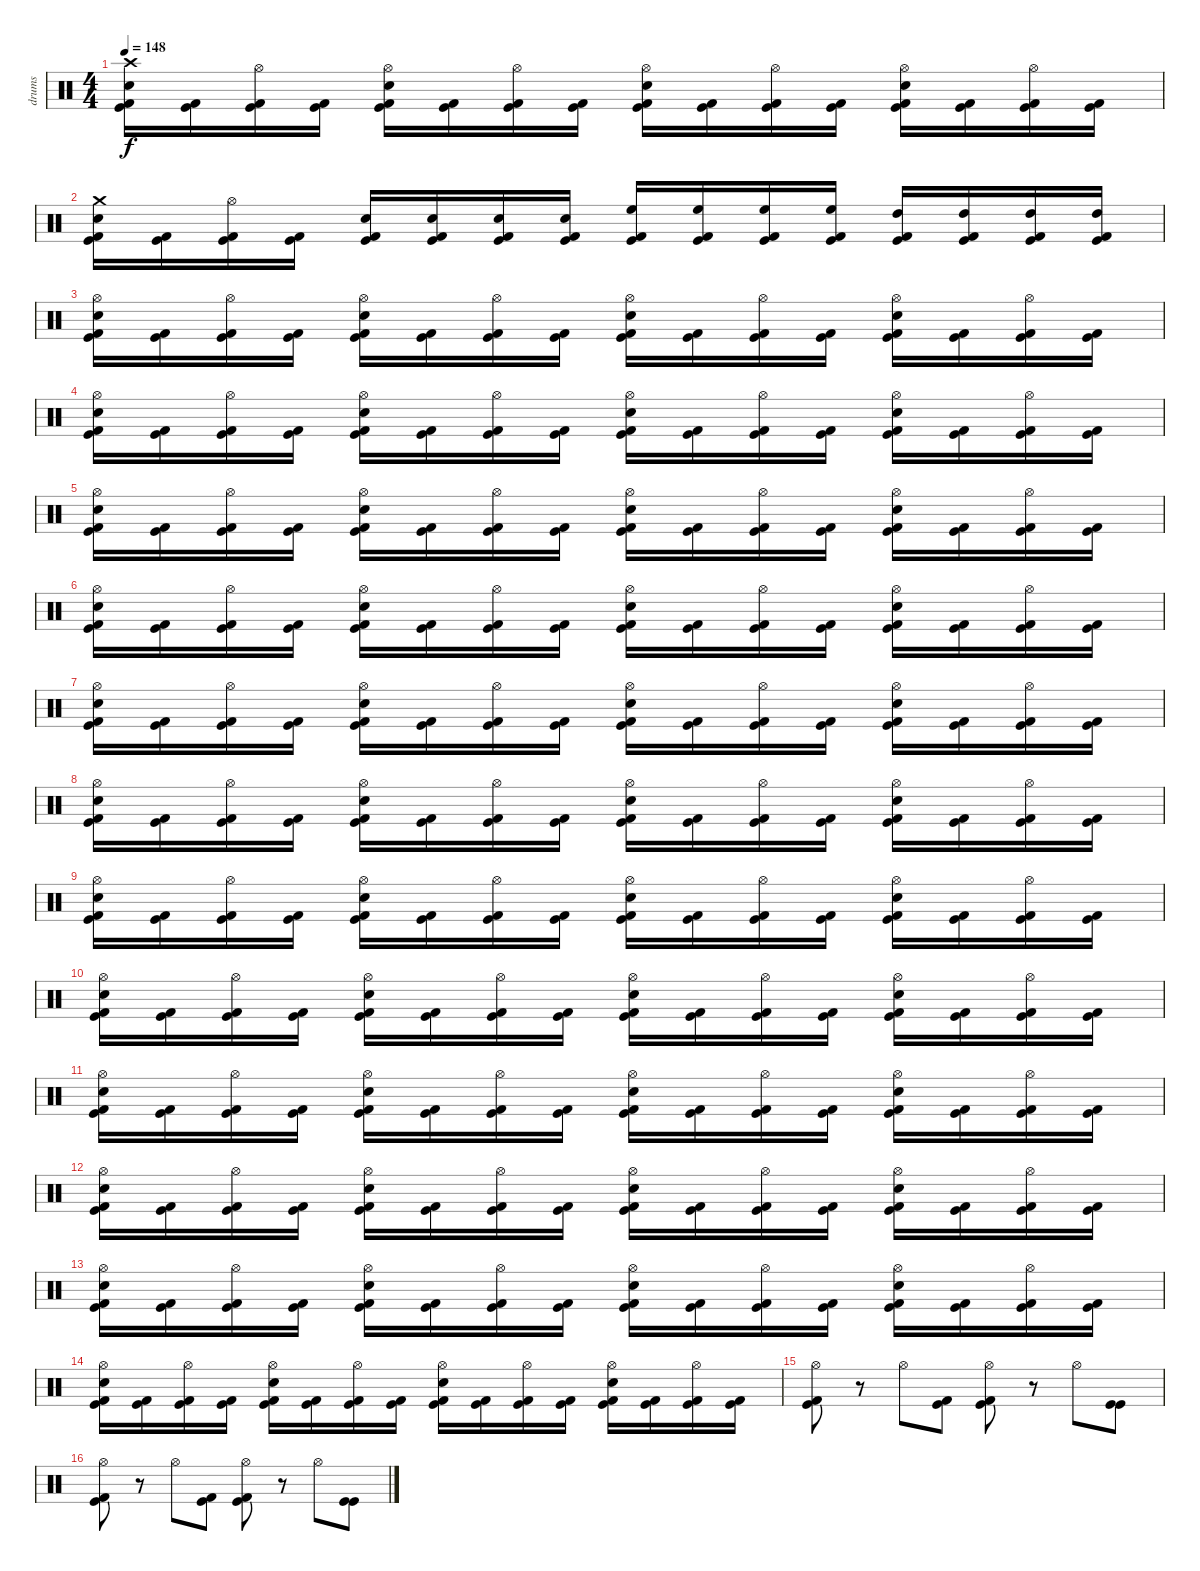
\track ("drums" "drums") {instrument percussion}
\staff {score}
\articulation defaults
\ts (4 4)
\tempo 148
\clef neutral
\ks c
("Kick (hit)" "Kick (hit) 2" "Snare (hit) 2" "Crash high (hit)").16{dy f} ("Kick (hit)" "Kick (hit) 2").16 ("Kick (hit)" "Kick (hit) 2" "Hi-Hat (open)").16 ("Kick (hit)" "Kick (hit) 2").16 ("Kick (hit)" "Kick (hit) 2" "Snare (hit) 2" "Hi-Hat (open)").16 ("Kick (hit)" "Kick (hit) 2").16 ("Kick (hit)" "Kick (hit) 2" "Hi-Hat (open)").16 ("Kick (hit)" "Kick (hit) 2").16 ("Kick (hit)" "Kick (hit) 2" "Snare (hit) 2" "Hi-Hat (open)").16 ("Kick (hit)" "Kick (hit) 2").16 ("Kick (hit)" "Kick (hit) 2" "Hi-Hat (open)").16 ("Kick (hit)" "Kick (hit) 2").16 ("Kick (hit)" "Kick (hit) 2" "Snare (hit) 2" "Hi-Hat (open)").16 ("Kick (hit)" "Kick (hit) 2").16 ("Kick (hit)" "Kick (hit) 2" "Hi-Hat (open)").16 ("Kick (hit)" "Kick (hit) 2").16 |
("Kick (hit)" "Kick (hit) 2" "Snare (hit) 2" "Crash medium (hit)").16 ("Kick (hit)" "Kick (hit) 2").16 ("Kick (hit)" "Kick (hit) 2" "Hi-Hat (open)").16 ("Kick (hit)" "Kick (hit) 2").16 ("Kick (hit)" "Kick (hit) 2" "Snare (hit) 2").16 ("Kick (hit)" "Kick (hit) 2" "Snare (hit) 2").16 ("Kick (hit)" "Kick (hit) 2" "Snare (hit) 2").16 ("Kick (hit)" "Kick (hit) 2" "Snare (hit) 2").16 ("Kick (hit)" "Kick (hit) 2" "High Floor Tom (hit)").16 ("Kick (hit)" "Kick (hit) 2" "High Floor Tom (hit)").16 ("Kick (hit)" "Kick (hit) 2" "High Floor Tom (hit)").16 ("Kick (hit)" "Kick (hit) 2" "High Floor Tom (hit)").16 ("Kick (hit)" "Kick (hit) 2" "High Tom (hit)").16 ("Kick (hit)" "Kick (hit) 2" "High Tom (hit)").16 ("Kick (hit)" "Kick (hit) 2" "High Tom (hit)").16 ("Kick (hit)" "Kick (hit) 2" "High Tom (hit)").16 |
("Kick (hit)" "Kick (hit) 2" "Snare (hit) 2" "Hi-Hat (open)").16 ("Kick (hit)" "Kick (hit) 2").16 ("Kick (hit)" "Kick (hit) 2" "Hi-Hat (open)").16 ("Kick (hit)" "Kick (hit) 2").16 ("Kick (hit)" "Kick (hit) 2" "Snare (hit) 2" "Hi-Hat (open)").16 ("Kick (hit)" "Kick (hit) 2").16 ("Kick (hit)" "Kick (hit) 2" "Hi-Hat (open)").16 ("Kick (hit)" "Kick (hit) 2").16 ("Kick (hit)" "Kick (hit) 2" "Snare (hit) 2" "Hi-Hat (open)").16 ("Kick (hit)" "Kick (hit) 2").16 ("Kick (hit)" "Kick (hit) 2" "Hi-Hat (open)").16 ("Kick (hit)" "Kick (hit) 2").16 ("Kick (hit)" "Kick (hit) 2" "Snare (hit) 2" "Hi-Hat (open)").16 ("Kick (hit)" "Kick (hit) 2").16 ("Kick (hit)" "Kick (hit) 2" "Hi-Hat (open)").16 ("Kick (hit)" "Kick (hit) 2").16 |
("Kick (hit)" "Kick (hit) 2" "Snare (hit) 2" "Hi-Hat (open)").16 ("Kick (hit)" "Kick (hit) 2").16 ("Kick (hit)" "Kick (hit) 2" "Hi-Hat (open)").16 ("Kick (hit)" "Kick (hit) 2").16 ("Kick (hit)" "Kick (hit) 2" "Snare (hit) 2" "Hi-Hat (open)").16 ("Kick (hit)" "Kick (hit) 2").16 ("Kick (hit)" "Kick (hit) 2" "Hi-Hat (open)").16 ("Kick (hit)" "Kick (hit) 2").16 ("Kick (hit)" "Kick (hit) 2" "Snare (hit) 2" "Hi-Hat (open)").16 ("Kick (hit)" "Kick (hit) 2").16 ("Kick (hit)" "Kick (hit) 2" "Hi-Hat (open)").16 ("Kick (hit)" "Kick (hit) 2").16 ("Kick (hit)" "Kick (hit) 2" "Snare (hit) 2" "Hi-Hat (open)").16 ("Kick (hit)" "Kick (hit) 2").16 ("Kick (hit)" "Kick (hit) 2" "Hi-Hat (open)").16 ("Kick (hit)" "Kick (hit) 2").16 |
("Kick (hit)" "Kick (hit) 2" "Snare (hit) 2" "Hi-Hat (open)").16 ("Kick (hit)" "Kick (hit) 2").16 ("Kick (hit)" "Kick (hit) 2" "Hi-Hat (open)").16 ("Kick (hit)" "Kick (hit) 2").16 ("Kick (hit)" "Kick (hit) 2" "Snare (hit) 2" "Hi-Hat (open)").16 ("Kick (hit)" "Kick (hit) 2").16 ("Kick (hit)" "Kick (hit) 2" "Hi-Hat (open)").16 ("Kick (hit)" "Kick (hit) 2").16 ("Kick (hit)" "Kick (hit) 2" "Snare (hit) 2" "Hi-Hat (open)").16 ("Kick (hit)" "Kick (hit) 2").16 ("Kick (hit)" "Kick (hit) 2" "Hi-Hat (open)").16 ("Kick (hit)" "Kick (hit) 2").16 ("Kick (hit)" "Kick (hit) 2" "Snare (hit) 2" "Hi-Hat (open)").16 ("Kick (hit)" "Kick (hit) 2").16 ("Kick (hit)" "Kick (hit) 2" "Hi-Hat (open)").16 ("Kick (hit)" "Kick (hit) 2").16 |
("Kick (hit)" "Kick (hit) 2" "Snare (hit) 2" "Hi-Hat (open)").16 ("Kick (hit)" "Kick (hit) 2").16 ("Kick (hit)" "Kick (hit) 2" "Hi-Hat (open)").16 ("Kick (hit)" "Kick (hit) 2").16 ("Kick (hit)" "Kick (hit) 2" "Snare (hit) 2" "Hi-Hat (open)").16 ("Kick (hit)" "Kick (hit) 2").16 ("Kick (hit)" "Kick (hit) 2" "Hi-Hat (open)").16 ("Kick (hit)" "Kick (hit) 2").16 ("Kick (hit)" "Kick (hit) 2" "Snare (hit) 2" "Hi-Hat (open)").16 ("Kick (hit)" "Kick (hit) 2").16 ("Kick (hit)" "Kick (hit) 2" "Hi-Hat (open)").16 ("Kick (hit)" "Kick (hit) 2").16 ("Kick (hit)" "Kick (hit) 2" "Snare (hit) 2" "Hi-Hat (open)").16 ("Kick (hit)" "Kick (hit) 2").16 ("Kick (hit)" "Kick (hit) 2" "Hi-Hat (open)").16 ("Kick (hit)" "Kick (hit) 2").16 |
("Kick (hit)" "Kick (hit) 2" "Snare (hit) 2" "Hi-Hat (open)").16 ("Kick (hit)" "Kick (hit) 2").16 ("Kick (hit)" "Kick (hit) 2" "Hi-Hat (open)").16 ("Kick (hit)" "Kick (hit) 2").16 ("Kick (hit)" "Kick (hit) 2" "Snare (hit) 2" "Hi-Hat (open)").16 ("Kick (hit)" "Kick (hit) 2").16 ("Kick (hit)" "Kick (hit) 2" "Hi-Hat (open)").16 ("Kick (hit)" "Kick (hit) 2").16 ("Kick (hit)" "Kick (hit) 2" "Snare (hit) 2" "Hi-Hat (open)").16 ("Kick (hit)" "Kick (hit) 2").16 ("Kick (hit)" "Kick (hit) 2" "Hi-Hat (open)").16 ("Kick (hit)" "Kick (hit) 2").16 ("Kick (hit)" "Kick (hit) 2" "Snare (hit) 2" "Hi-Hat (open)").16 ("Kick (hit)" "Kick (hit) 2").16 ("Kick (hit)" "Kick (hit) 2" "Hi-Hat (open)").16 ("Kick (hit)" "Kick (hit) 2").16 |
("Kick (hit)" "Kick (hit) 2" "Snare (hit) 2" "Hi-Hat (open)").16 ("Kick (hit)" "Kick (hit) 2").16 ("Kick (hit)" "Kick (hit) 2" "Hi-Hat (open)").16 ("Kick (hit)" "Kick (hit) 2").16 ("Kick (hit)" "Kick (hit) 2" "Snare (hit) 2" "Hi-Hat (open)").16 ("Kick (hit)" "Kick (hit) 2").16 ("Kick (hit)" "Kick (hit) 2" "Hi-Hat (open)").16 ("Kick (hit)" "Kick (hit) 2").16 ("Kick (hit)" "Kick (hit) 2" "Snare (hit) 2" "Hi-Hat (open)").16 ("Kick (hit)" "Kick (hit) 2").16 ("Kick (hit)" "Kick (hit) 2" "Hi-Hat (open)").16 ("Kick (hit)" "Kick (hit) 2").16 ("Kick (hit)" "Kick (hit) 2" "Snare (hit) 2" "Hi-Hat (open)").16 ("Kick (hit)" "Kick (hit) 2").16 ("Kick (hit)" "Kick (hit) 2" "Hi-Hat (open)").16 ("Kick (hit)" "Kick (hit) 2").16 |
("Kick (hit)" "Kick (hit) 2" "Snare (hit) 2" "Hi-Hat (open)").16 ("Kick (hit)" "Kick (hit) 2").16 ("Kick (hit)" "Kick (hit) 2" "Hi-Hat (open)").16 ("Kick (hit)" "Kick (hit) 2").16 ("Kick (hit)" "Kick (hit) 2" "Snare (hit) 2" "Hi-Hat (open)").16 ("Kick (hit)" "Kick (hit) 2").16 ("Kick (hit)" "Kick (hit) 2" "Hi-Hat (open)").16 ("Kick (hit)" "Kick (hit) 2").16 ("Kick (hit)" "Kick (hit) 2" "Snare (hit) 2" "Hi-Hat (open)").16 ("Kick (hit)" "Kick (hit) 2").16 ("Kick (hit)" "Kick (hit) 2" "Hi-Hat (open)").16 ("Kick (hit)" "Kick (hit) 2").16 ("Kick (hit)" "Kick (hit) 2" "Snare (hit) 2" "Hi-Hat (open)").16 ("Kick (hit)" "Kick (hit) 2").16 ("Kick (hit)" "Kick (hit) 2" "Hi-Hat (open)").16 ("Kick (hit)" "Kick (hit) 2").16 |
("Kick (hit)" "Kick (hit) 2" "Snare (hit) 2" "Hi-Hat (open)").16 ("Kick (hit)" "Kick (hit) 2").16 ("Kick (hit)" "Kick (hit) 2" "Hi-Hat (open)").16 ("Kick (hit)" "Kick (hit) 2").16 ("Kick (hit)" "Kick (hit) 2" "Snare (hit) 2" "Hi-Hat (open)").16 ("Kick (hit)" "Kick (hit) 2").16 ("Kick (hit)" "Kick (hit) 2" "Hi-Hat (open)").16 ("Kick (hit)" "Kick (hit) 2").16 ("Kick (hit)" "Kick (hit) 2" "Snare (hit) 2" "Hi-Hat (open)").16 ("Kick (hit)" "Kick (hit) 2").16 ("Kick (hit)" "Kick (hit) 2" "Hi-Hat (open)").16 ("Kick (hit)" "Kick (hit) 2").16 ("Kick (hit)" "Kick (hit) 2" "Snare (hit) 2" "Hi-Hat (open)").16 ("Kick (hit)" "Kick (hit) 2").16 ("Kick (hit)" "Kick (hit) 2" "Hi-Hat (open)").16 ("Kick (hit)" "Kick (hit) 2").16 |
("Kick (hit)" "Kick (hit) 2" "Snare (hit) 2" "Hi-Hat (open)").16 ("Kick (hit)" "Kick (hit) 2").16 ("Kick (hit)" "Kick (hit) 2" "Hi-Hat (open)").16 ("Kick (hit)" "Kick (hit) 2").16 ("Kick (hit)" "Kick (hit) 2" "Snare (hit) 2" "Hi-Hat (open)").16 ("Kick (hit)" "Kick (hit) 2").16 ("Kick (hit)" "Kick (hit) 2" "Hi-Hat (open)").16 ("Kick (hit)" "Kick (hit) 2").16 ("Kick (hit)" "Kick (hit) 2" "Snare (hit) 2" "Hi-Hat (open)").16 ("Kick (hit)" "Kick (hit) 2").16 ("Kick (hit)" "Kick (hit) 2" "Hi-Hat (open)").16 ("Kick (hit)" "Kick (hit) 2").16 ("Kick (hit)" "Kick (hit) 2" "Snare (hit) 2" "Hi-Hat (open)").16 ("Kick (hit)" "Kick (hit) 2").16 ("Kick (hit)" "Kick (hit) 2" "Hi-Hat (open)").16 ("Kick (hit)" "Kick (hit) 2").16 |
("Kick (hit)" "Kick (hit) 2" "Snare (hit) 2" "Hi-Hat (open)").16 ("Kick (hit)" "Kick (hit) 2").16 ("Kick (hit)" "Kick (hit) 2" "Hi-Hat (open)").16 ("Kick (hit)" "Kick (hit) 2").16 ("Kick (hit)" "Kick (hit) 2" "Snare (hit) 2" "Hi-Hat (open)").16 ("Kick (hit)" "Kick (hit) 2").16 ("Kick (hit)" "Kick (hit) 2" "Hi-Hat (open)").16 ("Kick (hit)" "Kick (hit) 2").16 ("Kick (hit)" "Kick (hit) 2" "Snare (hit) 2" "Hi-Hat (open)").16 ("Kick (hit)" "Kick (hit) 2").16 ("Kick (hit)" "Kick (hit) 2" "Hi-Hat (open)").16 ("Kick (hit)" "Kick (hit) 2").16 ("Kick (hit)" "Kick (hit) 2" "Snare (hit) 2" "Hi-Hat (open)").16 ("Kick (hit)" "Kick (hit) 2").16 ("Kick (hit)" "Kick (hit) 2" "Hi-Hat (open)").16 ("Kick (hit)" "Kick (hit) 2").16 |
("Kick (hit)" "Kick (hit) 2" "Snare (hit) 2" "Hi-Hat (open)").16 ("Kick (hit)" "Kick (hit) 2").16 ("Kick (hit)" "Kick (hit) 2" "Hi-Hat (open)").16 ("Kick (hit)" "Kick (hit) 2").16 ("Kick (hit)" "Kick (hit) 2" "Snare (hit) 2" "Hi-Hat (open)").16 ("Kick (hit)" "Kick (hit) 2").16 ("Kick (hit)" "Kick (hit) 2" "Hi-Hat (open)").16 ("Kick (hit)" "Kick (hit) 2").16 ("Kick (hit)" "Kick (hit) 2" "Snare (hit) 2" "Hi-Hat (open)").16 ("Kick (hit)" "Kick (hit) 2").16 ("Kick (hit)" "Kick (hit) 2" "Hi-Hat (open)").16 ("Kick (hit)" "Kick (hit) 2").16 ("Kick (hit)" "Kick (hit) 2" "Snare (hit) 2" "Hi-Hat (open)").16 ("Kick (hit)" "Kick (hit) 2").16 ("Kick (hit)" "Kick (hit) 2" "Hi-Hat (open)").16 ("Kick (hit)" "Kick (hit) 2").16 |
("Kick (hit)" "Kick (hit) 2" "Snare (hit) 2" "Hi-Hat (open)").16 ("Kick (hit)" "Kick (hit) 2").16 ("Kick (hit)" "Kick (hit) 2" "Hi-Hat (open)").16 ("Kick (hit)" "Kick (hit) 2").16 ("Kick (hit)" "Kick (hit) 2" "Snare (hit) 2" "Hi-Hat (open)").16 ("Kick (hit)" "Kick (hit) 2").16 ("Kick (hit)" "Kick (hit) 2" "Hi-Hat (open)").16 ("Kick (hit)" "Kick (hit) 2").16 ("Kick (hit)" "Kick (hit) 2" "Snare (hit) 2" "Hi-Hat (open)").16 ("Kick (hit)" "Kick (hit) 2").16 ("Kick (hit)" "Kick (hit) 2" "Hi-Hat (open)").16 ("Kick (hit)" "Kick (hit) 2").16 ("Kick (hit)" "Kick (hit) 2" "Snare (hit) 2" "Hi-Hat (open)").16 ("Kick (hit)" "Kick (hit) 2").16 ("Kick (hit)" "Kick (hit) 2" "Hi-Hat (open)").16 ("Kick (hit)" "Kick (hit) 2").16 |
("Kick (hit)" "Kick (hit) 2" "Hi-Hat (open)").8 r.8 "Hi-Hat (open)".8 ("Kick (hit)" "Kick (hit) 2").8 ("Kick (hit)" "Kick (hit) 2" "Hi-Hat (open)").8 r.8 "Hi-Hat (open)".8 ("Kick (hit)" "Kick (hit)").8 |
("Kick (hit)" "Kick (hit) 2" "Hi-Hat (open)").8 r.8 "Hi-Hat (open)".8 ("Kick (hit)" "Kick (hit) 2").8 ("Kick (hit)" "Kick (hit) 2" "Hi-Hat (open)").8 r.8 "Hi-Hat (open)".8 ("Kick (hit)" "Kick (hit)").8
